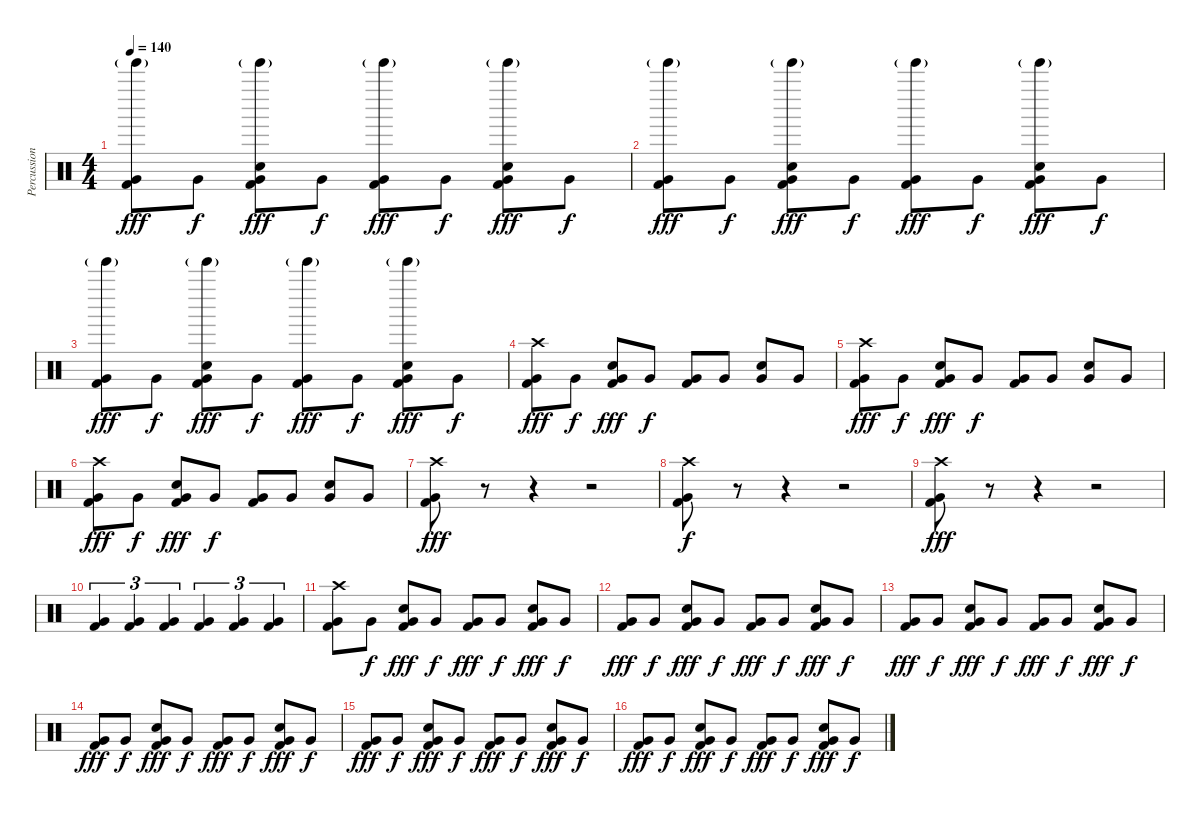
\track ("Percussion" "Percussion") {instrument percussion}
\staff {score}
\articulation defaults
\ts (4 4)
\tempo 140
\clef neutral
\ks c
("Tinkle Bell (hit)"{g} "Very Low Tom (hit)" "Kick (hit) 2").8{dy fff} "Very Low Tom (hit)".8{dy f} ("Tinkle Bell (hit)"{g} "Very Low Tom (hit)" "Snare (hit) 2" "Kick (hit) 2").8{dy fff} "Very Low Tom (hit)".8{dy f} ("Tinkle Bell (hit)"{g} "Very Low Tom (hit)" "Kick (hit) 2").8{dy fff} "Very Low Tom (hit)".8{dy f} ("Tinkle Bell (hit)"{g} "Very Low Tom (hit)" "Snare (hit) 2" "Kick (hit) 2").8{dy fff} "Very Low Tom (hit)".8{dy f} |
("Tinkle Bell (hit)"{g} "Very Low Tom (hit)" "Kick (hit) 2").8{dy fff} "Very Low Tom (hit)".8{dy f} ("Tinkle Bell (hit)"{g} "Very Low Tom (hit)" "Snare (hit) 2" "Kick (hit) 2").8{dy fff} "Very Low Tom (hit)".8{dy f} ("Tinkle Bell (hit)"{g} "Very Low Tom (hit)" "Kick (hit) 2").8{dy fff} "Very Low Tom (hit)".8{dy f} ("Tinkle Bell (hit)"{g} "Very Low Tom (hit)" "Snare (hit) 2" "Kick (hit) 2").8{dy fff} "Very Low Tom (hit)".8{dy f} |
("Tinkle Bell (hit)"{g} "Very Low Tom (hit)" "Kick (hit) 2").8{dy fff} "Very Low Tom (hit)".8{dy f} ("Tinkle Bell (hit)"{g} "Very Low Tom (hit)" "Snare (hit) 2" "Kick (hit) 2").8{dy fff} "Very Low Tom (hit)".8{dy f} ("Tinkle Bell (hit)"{g} "Very Low Tom (hit)" "Kick (hit) 2").8{dy fff} "Very Low Tom (hit)".8{dy f} ("Tinkle Bell (hit)"{g} "Very Low Tom (hit)" "Snare (hit) 2" "Kick (hit) 2").8{dy fff} "Very Low Tom (hit)".8{dy f} |
("Crash high (hit)" "Very Low Tom (hit)" "Kick (hit) 2").8{dy fff} "Very Low Tom (hit)".8{dy f} ("Very Low Tom (hit)" "Snare (hit) 2" "Kick (hit) 2").8{dy fff} "Very Low Tom (hit)".8{dy f} ("Very Low Tom (hit)" "Kick (hit) 2").8 "Very Low Tom (hit)".8 ("Very Low Tom (hit)" "Snare (hit) 2").8 "Very Low Tom (hit)".8 |
("Crash high (hit)" "Very Low Tom (hit)" "Kick (hit) 2").8{dy fff} "Very Low Tom (hit)".8{dy f} ("Very Low Tom (hit)" "Snare (hit) 2" "Kick (hit) 2").8{dy fff} "Very Low Tom (hit)".8{dy f} ("Very Low Tom (hit)" "Kick (hit) 2").8 "Very Low Tom (hit)".8 ("Very Low Tom (hit)" "Snare (hit) 2").8 "Very Low Tom (hit)".8 |
("Crash high (hit)" "Very Low Tom (hit)" "Kick (hit) 2").8{dy fff} "Very Low Tom (hit)".8{dy f} ("Very Low Tom (hit)" "Snare (hit) 2" "Kick (hit) 2").8{dy fff} "Very Low Tom (hit)".8{dy f} ("Very Low Tom (hit)" "Kick (hit) 2").8 "Very Low Tom (hit)".8 ("Very Low Tom (hit)" "Snare (hit) 2").8 "Very Low Tom (hit)".8 |
("Crash high (hit)" "Very Low Tom (hit)" "Kick (hit) 2").8{dy fff} r.8 r.4 r.2 |
("Crash high (hit)" "Very Low Tom (hit)" "Kick (hit) 2").8{dy f} r.8 r.4 r.2 |
("Crash high (hit)" "Very Low Tom (hit)" "Kick (hit) 2").8{dy fff} r.8 r.4 r.2 |
("Very Low Tom (hit)" "Kick (hit) 2").4{tu (3 2)} ("Very Low Tom (hit)" "Kick (hit) 2").4{tu (3 2)} ("Very Low Tom (hit)" "Kick (hit) 2").4{tu (3 2)} ("Very Low Tom (hit)" "Kick (hit) 2").4{tu (3 2)} ("Very Low Tom (hit)" "Kick (hit) 2").4{tu (3 2)} ("Very Low Tom (hit)" "Kick (hit) 2").4{tu (3 2)} |
("Crash high (hit)" "Very Low Tom (hit)" "Kick (hit) 2").8 "Very Low Tom (hit)".8{dy f} ("Very Low Tom (hit)" "Snare (hit) 2" "Kick (hit) 2").8{dy fff} "Very Low Tom (hit)".8{dy f} ("Very Low Tom (hit)" "Kick (hit) 2").8{dy fff} "Very Low Tom (hit)".8{dy f} ("Very Low Tom (hit)" "Snare (hit) 2" "Kick (hit) 2").8{dy fff} "Very Low Tom (hit)".8{dy f} |
("Very Low Tom (hit)" "Kick (hit) 2").8{dy fff} "Very Low Tom (hit)".8{dy f} ("Very Low Tom (hit)" "Snare (hit) 2" "Kick (hit) 2").8{dy fff} "Very Low Tom (hit)".8{dy f} ("Very Low Tom (hit)" "Kick (hit) 2").8{dy fff} "Very Low Tom (hit)".8{dy f} ("Very Low Tom (hit)" "Snare (hit) 2" "Kick (hit) 2").8{dy fff} "Very Low Tom (hit)".8{dy f} |
("Very Low Tom (hit)" "Kick (hit) 2").8{dy fff} "Very Low Tom (hit)".8{dy f} ("Very Low Tom (hit)" "Snare (hit) 2" "Kick (hit) 2").8{dy fff} "Very Low Tom (hit)".8{dy f} ("Very Low Tom (hit)" "Kick (hit) 2").8{dy fff} "Very Low Tom (hit)".8{dy f} ("Very Low Tom (hit)" "Snare (hit) 2" "Kick (hit) 2").8{dy fff} "Very Low Tom (hit)".8{dy f} |
("Very Low Tom (hit)" "Kick (hit) 2").8{dy fff} "Very Low Tom (hit)".8{dy f} ("Very Low Tom (hit)" "Snare (hit) 2" "Kick (hit) 2").8{dy fff} "Very Low Tom (hit)".8{dy f} ("Very Low Tom (hit)" "Kick (hit) 2").8{dy fff} "Very Low Tom (hit)".8{dy f} ("Very Low Tom (hit)" "Snare (hit) 2" "Kick (hit) 2").8{dy fff} "Very Low Tom (hit)".8{dy f} |
("Very Low Tom (hit)" "Kick (hit) 2").8{dy fff} "Very Low Tom (hit)".8{dy f} ("Very Low Tom (hit)" "Snare (hit) 2" "Kick (hit) 2").8{dy fff} "Very Low Tom (hit)".8{dy f} ("Very Low Tom (hit)" "Kick (hit) 2").8{dy fff} "Very Low Tom (hit)".8{dy f} ("Very Low Tom (hit)" "Snare (hit) 2" "Kick (hit) 2").8{dy fff} "Very Low Tom (hit)".8{dy f} |
("Very Low Tom (hit)" "Kick (hit) 2").8{dy fff} "Very Low Tom (hit)".8{dy f} ("Very Low Tom (hit)" "Snare (hit) 2" "Kick (hit) 2").8{dy fff} "Very Low Tom (hit)".8{dy f} ("Very Low Tom (hit)" "Kick (hit) 2").8{dy fff} "Very Low Tom (hit)".8{dy f} ("Very Low Tom (hit)" "Snare (hit) 2" "Kick (hit) 2").8{dy fff} "Very Low Tom (hit)".8{dy f}
